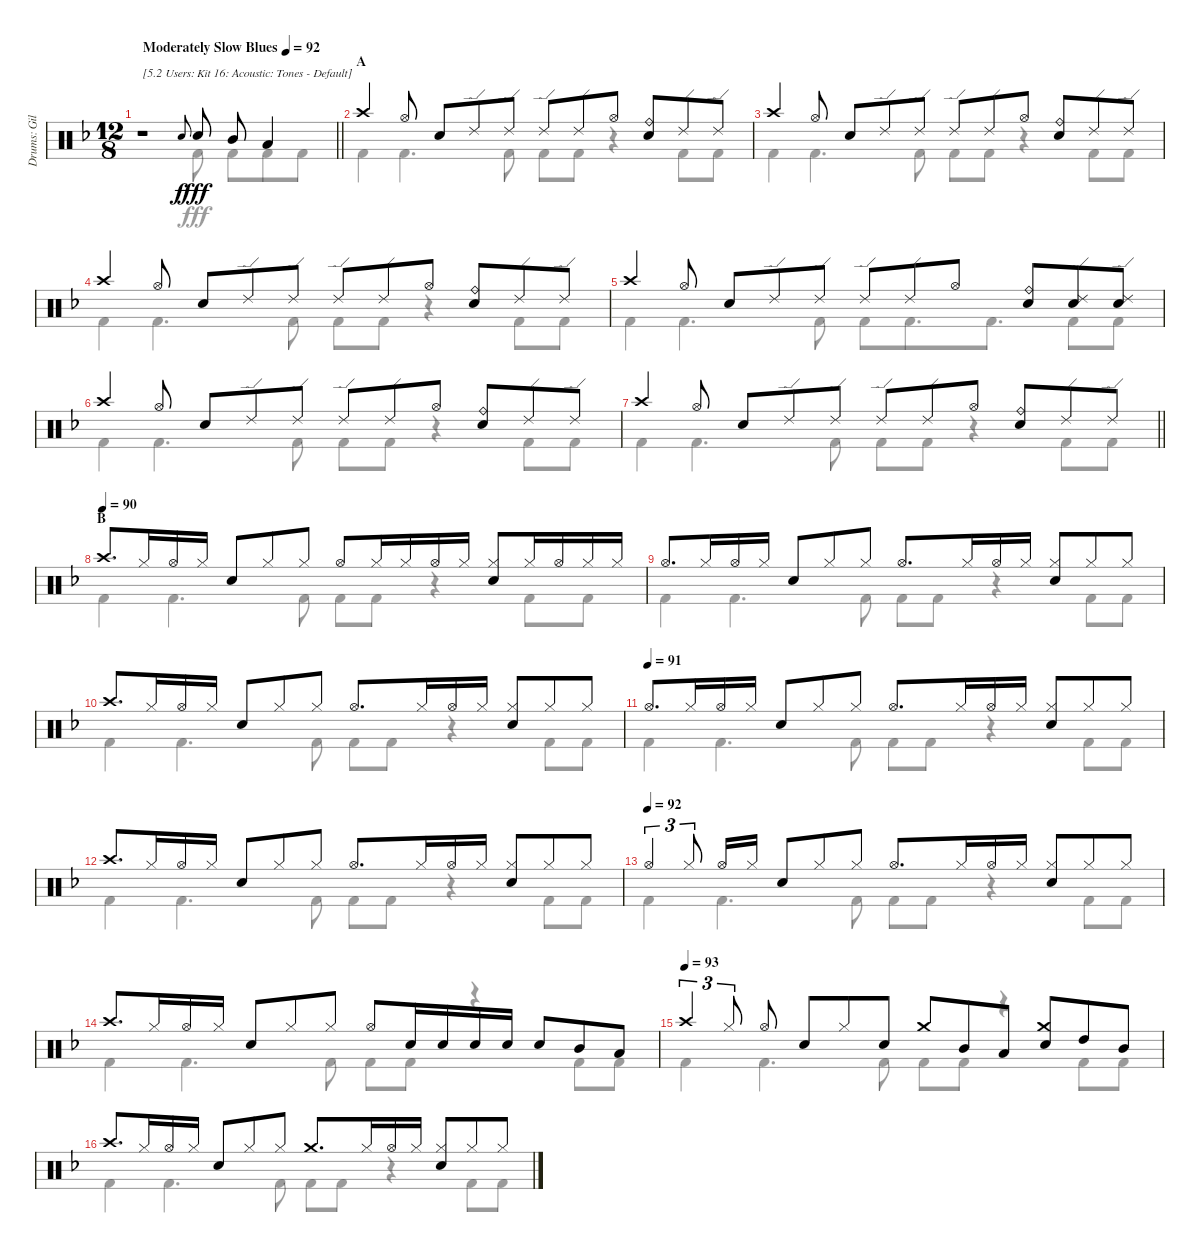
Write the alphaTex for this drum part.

\track ("Drums: Gil" "Drums: Gil") {instrument percussion}
\staff {score}
\articulation defaults
\voice
\ts (12 8)
\tempo (92 "Moderately Slow Blues")
\clef neutral
\barLineRight lightlight
\ks f
r.1{txt "[5.2 Users: Kit 16: Acoustic: Tones - Default]" dy f} "Electric Snare (hit)".8{gr onbeat} "Snare (hit) 2".8{dy fff} "Mid Tom (hit)".8 "Low Tom (hit)".4 |
\section ("" "A")
"Crash high (hit)".4 "Hi-Hat (open)".8 "Snare (hit) 2".8 "Ride (edge) 2".8 "Ride (edge) 2".8 "Ride (edge) 2".8 "Ride (edge) 2".8 "Hi-Hat (open)".8 ("Ride (bell)" "Snare (hit) 2").8 "Ride (edge) 2".8 "Ride (edge) 2".8 |
"Crash high (hit)".4 "Hi-Hat (open)".8 "Snare (hit) 2".8 "Ride (edge) 2".8 "Ride (edge) 2".8 "Ride (edge) 2".8 "Ride (edge) 2".8 "Hi-Hat (open)".8 ("Ride (bell)" "Snare (hit) 2").8 "Ride (edge) 2".8 "Ride (edge) 2".8 |
"Crash high (hit)".4 "Hi-Hat (open)".8 "Snare (hit) 2".8 "Ride (edge) 2".8 "Ride (edge) 2".8 "Ride (edge) 2".8 "Ride (edge) 2".8 "Hi-Hat (open)".8 ("Ride (bell)" "Snare (hit) 2").8 "Ride (edge) 2".8 "Ride (edge) 2".8 |
"Crash high (hit)".4 "Hi-Hat (open)".8 "Snare (hit) 2".8 "Ride (edge) 2".8 "Ride (edge) 2".8 "Ride (edge) 2".8 "Ride (edge) 2".8 "Hi-Hat (open)".8 ("Ride (bell)" "Snare (hit) 2").8 ("Ride (edge) 2" "Snare (hit) 2").8 ("Ride (edge) 2" "Snare (hit) 2").8 |
"Crash high (hit)".4 "Hi-Hat (open)".8 "Snare (hit) 2".8 "Ride (edge) 2".8 "Ride (edge) 2".8 "Ride (edge) 2".8 "Ride (edge) 2".8 "Hi-Hat (open)".8 ("Ride (bell)" "Snare (hit) 2").8 "Ride (edge) 2".8 "Ride (edge) 2".8 |
\barLineRight lightlight "Crash high (hit)".4 "Hi-Hat (open)".8 "Snare (hit) 2".8 "Ride (edge) 2".8 "Ride (edge) 2".8 "Ride (edge) 2".8 "Ride (edge) 2".8 "Hi-Hat (open)".8
("Ride (bell)" "Snare (hit) 2").8 "Ride (edge) 2".8 "Ride (edge) 2".8 |
\section ("" "B")
\tempo (90)
"Crash high (hit)".8{d} "Hi-Hat (closed)".16 "Hi-Hat (open)".16 "Hi-Hat (closed)".16 "Snare (hit) 2".8 "Hi-Hat (closed)".8 "Hi-Hat (closed)".8 "Hi-Hat (open)".8 "Hi-Hat (closed)".16 "Hi-Hat (closed)".16 "Hi-Hat (open)".16 "Hi-Hat (closed)".16 ("Hi-Hat (closed)" "Snare (hit) 2").8 "Hi-Hat (closed)".16 "Hi-Hat (open)".16 "Hi-Hat (closed)".16 "Hi-Hat (closed)".16 |
"Hi-Hat (open)".8{d} "Hi-Hat (closed)".16 "Hi-Hat (open)".16 "Hi-Hat (closed)".16 "Snare (hit) 2".8 "Hi-Hat (closed)".8 "Hi-Hat (closed)".8 "Hi-Hat (open)".8{d} "Hi-Hat (closed)".16 "Hi-Hat (open)".16 "Hi-Hat (closed)".16 ("Hi-Hat (closed)" "Snare (hit) 2").8 "Hi-Hat (closed)".8 "Hi-Hat (closed)".8 |
"Crash high (hit)".8{d} "Hi-Hat (closed)".16 "Hi-Hat (open)".16 "Hi-Hat (closed)".16 "Snare (hit) 2".8 "Hi-Hat (closed)".8 "Hi-Hat (closed)".8 "Hi-Hat (open)".8{d} "Hi-Hat (closed)".16 "Hi-Hat (open)".16 "Hi-Hat (closed)".16 ("Hi-Hat (closed)" "Snare (hit) 2").8 "Hi-Hat (closed)".8 "Hi-Hat (closed)".8 |
\tempo (91)
"Hi-Hat (open)".8{d} "Hi-Hat (closed)".16 "Hi-Hat (open)".16 "Hi-Hat (closed)".16 "Snare (hit) 2".8 "Hi-Hat (closed)".8 "Hi-Hat (closed)".8 "Hi-Hat (open)".8{d} "Hi-Hat (closed)".16 "Hi-Hat (open)".16 "Hi-Hat (closed)".16 ("Hi-Hat (closed)" "Snare (hit) 2").8 "Hi-Hat (closed)".8 "Hi-Hat (closed)".8 |
"Crash high (hit)".8{d} "Hi-Hat (closed)".16 "Hi-Hat (open)".16 "Hi-Hat (closed)".16 "Snare (hit) 2".8 "Hi-Hat (closed)".8 "Hi-Hat (closed)".8 "Hi-Hat (open)".8{d} "Hi-Hat (closed)".16 "Hi-Hat (open)".16 "Hi-Hat (closed)".16 ("Hi-Hat (closed)" "Snare (hit) 2").8 "Hi-Hat (closed)".8 "Hi-Hat (closed)".8 |
\tempo (92)
"Hi-Hat (open)".4{tu (3 2)} "Hi-Hat (closed)".8{tu (3 2)} "Hi-Hat (open)".16 "Hi-Hat (closed)".16 "Snare (hit) 2".8 "Hi-Hat (closed)".8 "Hi-Hat (closed)".8 "Hi-Hat (open)".8{d} "Hi-Hat (closed)".16 "Hi-Hat (open)".16 "Hi-Hat (closed)".16 ("Hi-Hat (closed)" "Snare (hit) 2").8 "Hi-Hat (closed)".8 "Hi-Hat (closed)".8 |
"Crash high (hit)".8{d} "Hi-Hat (closed)".16 "Hi-Hat (open)".16 "Hi-Hat (closed)".16 "Snare (hit) 2".8 "Hi-Hat (closed)".8 "Hi-Hat (closed)".8 "Hi-Hat (open)".8 "Snare (hit) 2".16 "Snare (hit) 2".16 "Snare (hit) 2".16 "Snare (hit) 2".16 "Snare (hit) 2".8 "Mid Tom (hit)".8 "Low Tom (hit)".8 |
\tempo (93)
"Crash high (hit)".4{tu (3 2)} "Hi-Hat (closed)".8{tu (3 2)} "Hi-Hat (open)".8 "Snare (hit) 2".8 "Hi-Hat (closed)".8 "Snare (hit) 2".8 "Crash medium (hit)".8 "Mid Tom (hit)".8 "Low Tom (hit)".8 ("Crash medium (hit)" "Snare (hit) 2").8 "High Tom (hit)".8 "Mid Tom (hit)".8 |
"Crash high (hit)".8{d} "Hi-Hat (closed)".16 "Hi-Hat (open)".16 "Hi-Hat (closed)".16 "Snare (hit) 2".8 "Hi-Hat (closed)".8 "Hi-Hat (closed)".8 "Crash medium (hit)".8{d} "Hi-Hat (closed)".16 "Hi-Hat (open)".16 "Hi-Hat (closed)".16 ("Hi-Hat (closed)" "Snare (hit) 2").8 "Hi-Hat (closed)".8 "Hi-Hat (closed)".8
\voice
\clef neutral
\ottava regular
\simile none
\barLineRight lightlight
\ks f
r.1{dy fff} "Kick (hit) 2".8 "Kick (hit) 2".8 "Kick (hit) 2".8 "Kick (hit) 2".8 |
"Kick (hit) 2".4 "Kick (hit) 2".4{d} "Kick (hit) 2".8 "Kick (hit) 2".8 "Kick (hit) 2".8 r.4 "Kick (hit) 2".8 "Kick (hit) 2".8 |
"Kick (hit) 2".4 "Kick (hit) 2".4{d} "Kick (hit) 2".8 "Kick (hit) 2".8 "Kick (hit) 2".8 r.4 "Kick (hit) 2".8 "Kick (hit) 2".8 |
"Kick (hit) 2".4 "Kick (hit) 2".4{d} "Kick (hit) 2".8 "Kick (hit) 2".8 "Kick (hit) 2".8 r.4 "Kick (hit) 2".8 "Kick (hit) 2".8 |
"Kick (hit) 2".4 "Kick (hit) 2".4{d} "Kick (hit) 2".8 "Kick (hit) 2".8 "Kick (hit) 2".8{d} "Kick (hit) 2".8{d} "Kick (hit) 2".8 "Kick (hit) 2".8 |
"Kick (hit) 2".4 "Kick (hit) 2".4{d} "Kick (hit) 2".8 "Kick (hit) 2".8 "Kick (hit) 2".8 r.4 "Kick (hit) 2".8 "Kick (hit) 2".8 |
\barLineRight lightlight "Kick (hit) 2".4 "Kick (hit) 2".4{d} "Kick (hit) 2".8 "Kick (hit) 2".8 "Kick (hit) 2".8
r.4 "Kick (hit) 2".8 "Kick (hit) 2".8 |
"Kick (hit) 2".4 "Kick (hit) 2".4{d} "Kick (hit) 2".8 "Kick (hit) 2".8 "Kick (hit) 2".8 r.4 "Kick (hit) 2".8 "Kick (hit) 2".8 |
"Kick (hit) 2".4 "Kick (hit) 2".4{d} "Kick (hit) 2".8 "Kick (hit) 2".8 "Kick (hit) 2".8 r.4 "Kick (hit) 2".8 "Kick (hit) 2".8 |
"Kick (hit) 2".4 "Kick (hit) 2".4{d} "Kick (hit) 2".8 "Kick (hit) 2".8 "Kick (hit) 2".8 r.4 "Kick (hit) 2".8 "Kick (hit) 2".8 |
"Kick (hit) 2".4 "Kick (hit) 2".4{d} "Kick (hit) 2".8 "Kick (hit) 2".8 "Kick (hit) 2".8 r.4 "Kick (hit) 2".8 "Kick (hit) 2".8 |
"Kick (hit) 2".4 "Kick (hit) 2".4{d} "Kick (hit) 2".8 "Kick (hit) 2".8 "Kick (hit) 2".8 r.4 "Kick (hit) 2".8 "Kick (hit) 2".8 |
"Kick (hit) 2".4 "Kick (hit) 2".4{d} "Kick (hit) 2".8 "Kick (hit) 2".8 "Kick (hit) 2".8 r.4 "Kick (hit) 2".8 "Kick (hit) 2".8 |
"Kick (hit) 2".4 "Kick (hit) 2".4{d} "Kick (hit) 2".8 "Kick (hit) 2".8 "Kick (hit) 2".8 r.4 "Kick (hit) 2".8 "Kick (hit) 2".8 |
"Kick (hit) 2".4 "Kick (hit) 2".4{d} "Kick (hit) 2".8 "Kick (hit) 2".8 "Kick (hit) 2".8 r.4 "Kick (hit) 2".8 "Kick (hit) 2".8 |
"Kick (hit) 2".4 "Kick (hit) 2".4{d} "Kick (hit) 2".8 "Kick (hit) 2".8 "Kick (hit) 2".8 r.4 "Kick (hit) 2".8 "Kick (hit) 2".8
